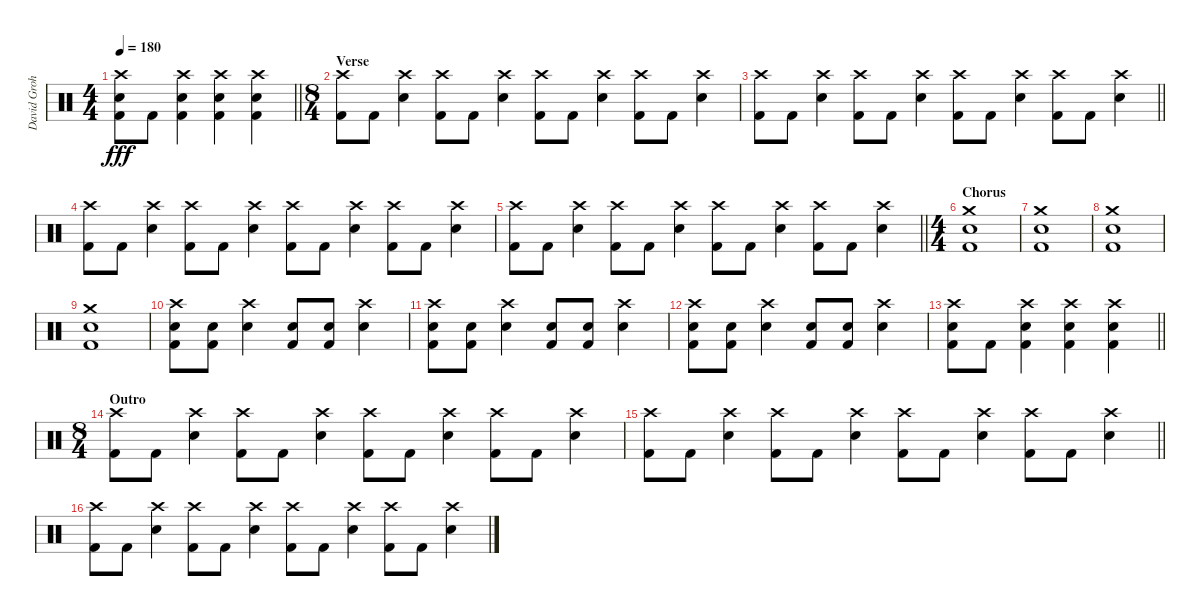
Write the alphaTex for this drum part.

\track ("David Grohl" "David Groh") {instrument percussion}
\staff {score}
\articulation defaults
\ts (4 4)
\tempo 180
\clef neutral
\barLineRight lightlight
\ks c
("Crash high (hit)" "Electric Snare (hit)" "Kick (hit) 2").8{dy fff} "Kick (hit) 2".8 ("Crash high (hit)" "Electric Snare (hit)" "Kick (hit) 2").4 ("Crash high (hit)" "Electric Snare (hit)" "Kick (hit) 2").4 ("Crash high (hit)" "Electric Snare (hit)" "Kick (hit) 2").4 |
\ts (8 4)
\section ("" "Verse")
("Crash high (hit)" "Kick (hit) 2").8 "Kick (hit) 2".8 ("Crash high (hit)" "Electric Snare (hit)").4 ("Crash high (hit)" "Kick (hit) 2").8 "Kick (hit) 2".8 ("Crash high (hit)" "Electric Snare (hit)").4 ("Crash high (hit)" "Kick (hit) 2").8 "Kick (hit) 2".8 ("Crash high (hit)" "Electric Snare (hit)").4 ("Crash high (hit)" "Kick (hit) 2").8 "Kick (hit) 2".8 ("Crash high (hit)" "Electric Snare (hit)").4 |
\barLineRight lightlight
("Crash high (hit)" "Kick (hit) 2").8 "Kick (hit) 2".8 ("Crash high (hit)" "Electric Snare (hit)").4 ("Crash high (hit)" "Kick (hit) 2").8 "Kick (hit) 2".8 ("Crash high (hit)" "Electric Snare (hit)").4 ("Crash high (hit)" "Kick (hit) 2").8 "Kick (hit) 2".8 ("Crash high (hit)" "Electric Snare (hit)").4 ("Crash high (hit)" "Kick (hit) 2").8 "Kick (hit) 2".8 ("Crash high (hit)" "Electric Snare (hit)").4 |
("Crash high (hit)" "Kick (hit) 2").8 "Kick (hit) 2".8 ("Crash high (hit)" "Electric Snare (hit)").4 ("Crash high (hit)" "Kick (hit) 2").8 "Kick (hit) 2".8 ("Crash high (hit)" "Electric Snare (hit)").4 ("Crash high (hit)" "Kick (hit) 2").8 "Kick (hit) 2".8 ("Crash high (hit)" "Electric Snare (hit)").4 ("Crash high (hit)" "Kick (hit) 2").8 "Kick (hit) 2".8 ("Crash high (hit)" "Electric Snare (hit)").4 |
\barLineRight lightlight
("Crash high (hit)" "Kick (hit) 2").8 "Kick (hit) 2".8 ("Crash high (hit)" "Electric Snare (hit)").4 ("Crash high (hit)" "Kick (hit) 2").8 "Kick (hit) 2".8 ("Crash high (hit)" "Electric Snare (hit)").4 ("Crash high (hit)" "Kick (hit) 2").8 "Kick (hit) 2".8 ("Crash high (hit)" "Electric Snare (hit)").4 ("Crash high (hit)" "Kick (hit) 2").8 "Kick (hit) 2".8 ("Crash high (hit)" "Electric Snare (hit)").4 |
\ts (4 4)
\section ("" "Chorus")
("Crash medium (hit)" "Electric Snare (hit)" "Kick (hit) 2").1 |
("Crash medium (hit)" "Electric Snare (hit)" "Kick (hit) 2").1 |
("Crash medium (hit)" "Electric Snare (hit)" "Kick (hit) 2").1 |
("Crash medium (hit)" "Electric Snare (hit)" "Kick (hit) 2").1 |
("Crash high (hit)" "Electric Snare (hit)" "Kick (hit) 2").8 ("Electric Snare (hit)" "Kick (hit) 2").8 ("Crash high (hit)" "Electric Snare (hit)").4 ("Electric Snare (hit)" "Kick (hit) 2").8 ("Electric Snare (hit)" "Kick (hit) 2").8 ("Crash high (hit)" "Electric Snare (hit)").4 |
("Crash high (hit)" "Electric Snare (hit)" "Kick (hit) 2").8 ("Electric Snare (hit)" "Kick (hit) 2").8 ("Crash high (hit)" "Electric Snare (hit)").4 ("Electric Snare (hit)" "Kick (hit) 2").8 ("Electric Snare (hit)" "Kick (hit) 2").8 ("Crash high (hit)" "Electric Snare (hit)").4 |
("Crash high (hit)" "Electric Snare (hit)" "Kick (hit) 2").8 ("Electric Snare (hit)" "Kick (hit) 2").8 ("Crash high (hit)" "Electric Snare (hit)").4 ("Electric Snare (hit)" "Kick (hit) 2").8 ("Electric Snare (hit)" "Kick (hit) 2").8 ("Crash high (hit)" "Electric Snare (hit)").4 |
\barLineRight lightlight
("Crash high (hit)" "Electric Snare (hit)" "Kick (hit) 2").8 "Kick (hit) 2".8 ("Crash high (hit)" "Electric Snare (hit)" "Kick (hit) 2").4 ("Crash high (hit)" "Electric Snare (hit)" "Kick (hit) 2").4 ("Crash high (hit)" "Electric Snare (hit)" "Kick (hit) 2").4 |
\ts (8 4)
\section ("" "Outro")
("Crash high (hit)" "Kick (hit) 2").8 "Kick (hit) 2".8 ("Crash high (hit)" "Electric Snare (hit)").4 ("Crash high (hit)" "Kick (hit) 2").8 "Kick (hit) 2".8 ("Crash high (hit)" "Electric Snare (hit)").4 ("Crash high (hit)" "Kick (hit) 2").8 "Kick (hit) 2".8 ("Crash high (hit)" "Electric Snare (hit)").4 ("Crash high (hit)" "Kick (hit) 2").8 "Kick (hit) 2".8 ("Crash high (hit)" "Electric Snare (hit)").4 |
\barLineRight lightlight
("Crash high (hit)" "Kick (hit) 2").8 "Kick (hit) 2".8 ("Crash high (hit)" "Electric Snare (hit)").4 ("Crash high (hit)" "Kick (hit) 2").8 "Kick (hit) 2".8 ("Crash high (hit)" "Electric Snare (hit)").4 ("Crash high (hit)" "Kick (hit) 2").8 "Kick (hit) 2".8 ("Crash high (hit)" "Electric Snare (hit)").4 ("Crash high (hit)" "Kick (hit) 2").8 "Kick (hit) 2".8 ("Crash high (hit)" "Electric Snare (hit)").4 |
("Crash high (hit)" "Kick (hit) 2").8 "Kick (hit) 2".8 ("Crash high (hit)" "Electric Snare (hit)").4 ("Crash high (hit)" "Kick (hit) 2").8 "Kick (hit) 2".8 ("Crash high (hit)" "Electric Snare (hit)").4 ("Crash high (hit)" "Kick (hit) 2").8 "Kick (hit) 2".8 ("Crash high (hit)" "Electric Snare (hit)").4 ("Crash high (hit)" "Kick (hit) 2").8 "Kick (hit) 2".8 ("Crash high (hit)" "Electric Snare (hit)").4
